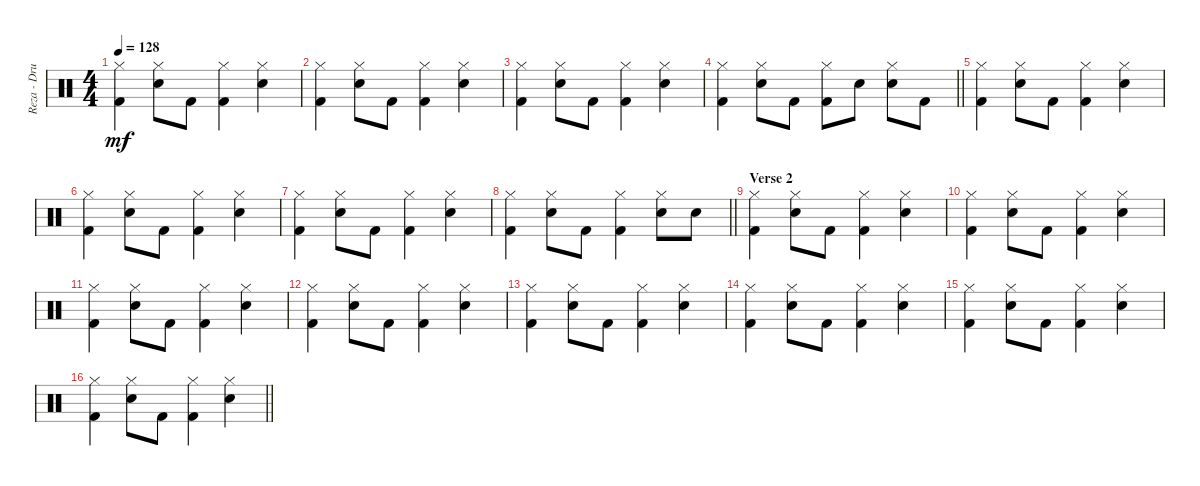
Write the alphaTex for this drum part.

\track ("Reza - Drum" "Reza - Dru") {instrument percussion}
\staff {score}
\articulation defaults
\ts (4 4)
\tempo 128
\clef neutral
\ks c
("Hi-Hat (closed)" "Kick (hit) 2").4{dy mf} ("Hi-Hat (closed)" "Electric Snare (hit)").8 "Kick (hit) 2".8 ("Hi-Hat (closed)" "Kick (hit) 2").4 ("Hi-Hat (closed)" "Electric Snare (hit)").4 |
("Hi-Hat (closed)" "Kick (hit) 2").4 ("Hi-Hat (closed)" "Electric Snare (hit)").8 "Kick (hit) 2".8 ("Hi-Hat (closed)" "Kick (hit) 2").4 ("Hi-Hat (closed)" "Electric Snare (hit)").4 |
("Hi-Hat (closed)" "Kick (hit) 2").4 ("Hi-Hat (closed)" "Electric Snare (hit)").8 "Kick (hit) 2".8 ("Hi-Hat (closed)" "Kick (hit) 2").4 ("Hi-Hat (closed)" "Electric Snare (hit)").4 |
\barLineRight lightlight
("Hi-Hat (closed)" "Kick (hit) 2").4 ("Hi-Hat (closed)" "Electric Snare (hit)").8 "Kick (hit) 2".8 ("Hi-Hat (closed)" "Kick (hit) 2").8 "Electric Snare (hit)".8 ("Hi-Hat (closed)" "Electric Snare (hit)").8 "Kick (hit) 2".8 |
("Hi-Hat (closed)" "Kick (hit) 2").4 ("Hi-Hat (closed)" "Electric Snare (hit)").8 "Kick (hit) 2".8 ("Hi-Hat (closed)" "Kick (hit) 2").4 ("Hi-Hat (closed)" "Electric Snare (hit)").4 |
("Hi-Hat (closed)" "Kick (hit) 2").4 ("Hi-Hat (closed)" "Electric Snare (hit)").8 "Kick (hit) 2".8 ("Hi-Hat (closed)" "Kick (hit) 2").4 ("Hi-Hat (closed)" "Electric Snare (hit)").4 |
("Hi-Hat (closed)" "Kick (hit) 2").4 ("Hi-Hat (closed)" "Electric Snare (hit)").8 "Kick (hit) 2".8 ("Hi-Hat (closed)" "Kick (hit) 2").4 ("Hi-Hat (closed)" "Electric Snare (hit)").4 |
\barLineRight lightlight
("Hi-Hat (closed)" "Kick (hit) 2").4 ("Hi-Hat (closed)" "Electric Snare (hit)").8 "Kick (hit) 2".8 ("Hi-Hat (closed)" "Kick (hit) 2").4 ("Hi-Hat (closed)" "Electric Snare (hit)").8 "Electric Snare (hit)".8 |
\section ("" "Verse 2")
("Hi-Hat (closed)" "Kick (hit) 2").4 ("Hi-Hat (closed)" "Electric Snare (hit)").8 "Kick (hit) 2".8 ("Hi-Hat (closed)" "Kick (hit) 2").4 ("Hi-Hat (closed)" "Electric Snare (hit)").4 |
("Hi-Hat (closed)" "Kick (hit) 2").4 ("Hi-Hat (closed)" "Electric Snare (hit)").8 "Kick (hit) 2".8 ("Hi-Hat (closed)" "Kick (hit) 2").4 ("Hi-Hat (closed)" "Electric Snare (hit)").4 |
("Hi-Hat (closed)" "Kick (hit) 2").4 ("Hi-Hat (closed)" "Electric Snare (hit)").8 "Kick (hit) 2".8 ("Hi-Hat (closed)" "Kick (hit) 2").4 ("Hi-Hat (closed)" "Electric Snare (hit)").4 |
("Hi-Hat (closed)" "Kick (hit) 2").4 ("Hi-Hat (closed)" "Electric Snare (hit)").8 "Kick (hit) 2".8 ("Hi-Hat (closed)" "Kick (hit) 2").4 ("Hi-Hat (closed)" "Electric Snare (hit)").4 |
("Hi-Hat (closed)" "Kick (hit) 2").4 ("Hi-Hat (closed)" "Electric Snare (hit)").8 "Kick (hit) 2".8 ("Hi-Hat (closed)" "Kick (hit) 2").4 ("Hi-Hat (closed)" "Electric Snare (hit)").4 |
("Hi-Hat (closed)" "Kick (hit) 2").4 ("Hi-Hat (closed)" "Electric Snare (hit)").8 "Kick (hit) 2".8 ("Hi-Hat (closed)" "Kick (hit) 2").4 ("Hi-Hat (closed)" "Electric Snare (hit)").4 |
("Hi-Hat (closed)" "Kick (hit) 2").4 ("Hi-Hat (closed)" "Electric Snare (hit)").8 "Kick (hit) 2".8 ("Hi-Hat (closed)" "Kick (hit) 2").4 ("Hi-Hat (closed)" "Electric Snare (hit)").4 |
\barLineRight lightlight
("Hi-Hat (closed)" "Kick (hit) 2").4 ("Hi-Hat (closed)" "Electric Snare (hit)").8 "Kick (hit) 2".8 ("Hi-Hat (closed)" "Kick (hit) 2").4 ("Hi-Hat (closed)" "Electric Snare (hit)").4
